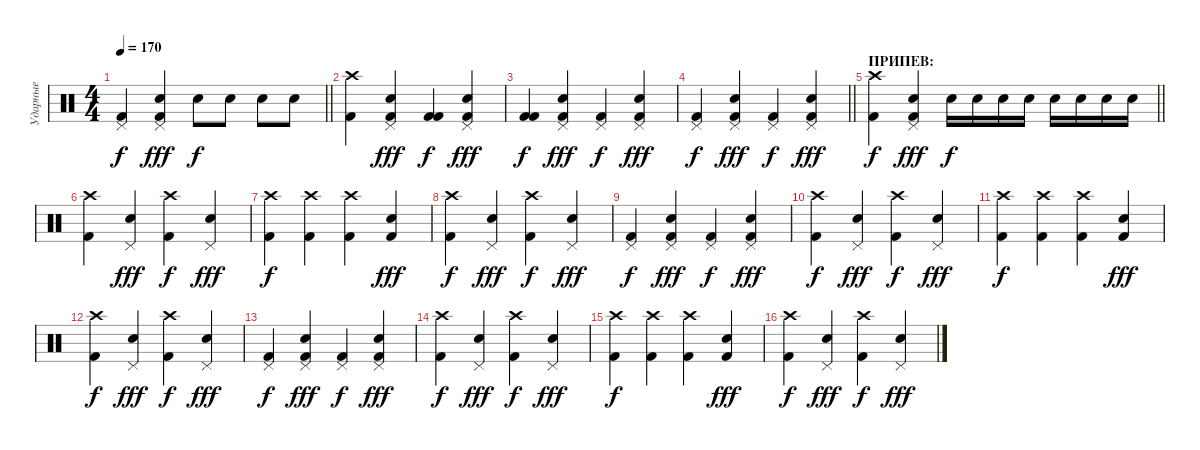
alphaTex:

\track ("Ударные" "Ударные") {instrument percussion}
\staff {score}
\articulation defaults
\ts (4 4)
\tempo 170
\clef neutral
\barLineRight lightlight
\ks c
("Pedal Hi-Hat (hit)" "Kick (hit) 2").4{dy f} ("Pedal Hi-Hat (hit)" "Snare (hit) 2" "Kick (hit) 2").4{dy fff} "Snare (hit) 2".8{dy f} "Snare (hit) 2".8 "Electric Snare (hit)".8 "Electric Snare (hit)".8 |
("Crash high (hit)" "Kick (hit) 2").4 ("Pedal Hi-Hat (hit)" "Snare (hit) 2" "Kick (hit) 2").4{dy fff} ("Kick (hit) 2" "Kick (hit) 2").4{dy f} ("Pedal Hi-Hat (hit)" "Snare (hit) 2" "Kick (hit) 2").4{dy fff} |
("Kick (hit) 2" "Kick (hit) 2").4{dy f} ("Pedal Hi-Hat (hit)" "Snare (hit) 2" "Kick (hit) 2").4{dy fff} ("Pedal Hi-Hat (hit)" "Kick (hit) 2").4{dy f} ("Pedal Hi-Hat (hit)" "Snare (hit) 2" "Kick (hit) 2").4{dy fff} |
\barLineRight lightlight
("Pedal Hi-Hat (hit)" "Kick (hit) 2").4{dy f} ("Pedal Hi-Hat (hit)" "Snare (hit) 2" "Kick (hit) 2").4{dy fff} ("Pedal Hi-Hat (hit)" "Kick (hit) 2").4{dy f} ("Pedal Hi-Hat (hit)" "Snare (hit) 2" "Kick (hit) 2").4{dy fff} |
\section ("" "ПРИПЕВ:")
\barLineRight lightlight
("Crash high (hit)" "Kick (hit) 2").4{dy f} ("Pedal Hi-Hat (hit)" "Snare (hit) 2" "Kick (hit) 2").4{dy fff} "Snare (hit) 2".16{dy f} "Snare (hit) 2".16 "Snare (hit) 2".16 "Snare (hit) 2".16 "Electric Snare (hit)".16 "Electric Snare (hit)".16 "Electric Snare (hit)".16 "Electric Snare (hit)".16 |
("Crash high (hit)" "Kick (hit) 2").4 ("Pedal Hi-Hat (hit)" "Snare (hit) 2").4{dy fff} ("Crash high (hit)" "Kick (hit) 2").4{dy f} ("Pedal Hi-Hat (hit)" "Snare (hit) 2").4{dy fff} |
("Crash high (hit)" "Kick (hit) 2").4{dy f} ("Crash high (hit)" "Kick (hit) 2").4 ("Crash high (hit)" "Kick (hit) 2").4 ("Snare (hit) 2" "Kick (hit) 2").4{dy fff} |
("Crash high (hit)" "Kick (hit) 2").4{dy f} ("Pedal Hi-Hat (hit)" "Snare (hit) 2").4{dy fff} ("Crash high (hit)" "Kick (hit) 2").4{dy f} ("Pedal Hi-Hat (hit)" "Snare (hit) 2").4{dy fff} |
("Pedal Hi-Hat (hit)" "Kick (hit) 2").4{dy f} ("Pedal Hi-Hat (hit)" "Snare (hit) 2" "Kick (hit) 2").4{dy fff} ("Pedal Hi-Hat (hit)" "Kick (hit) 2").4{dy f} ("Pedal Hi-Hat (hit)" "Snare (hit) 2" "Kick (hit) 2").4{dy fff} |
("Crash high (hit)" "Kick (hit) 2").4{dy f} ("Pedal Hi-Hat (hit)" "Snare (hit) 2").4{dy fff} ("Crash high (hit)" "Kick (hit) 2").4{dy f} ("Pedal Hi-Hat (hit)" "Snare (hit) 2").4{dy fff} |
("Crash high (hit)" "Kick (hit) 2").4{dy f} ("Crash high (hit)" "Kick (hit) 2").4 ("Crash high (hit)" "Kick (hit) 2").4 ("Snare (hit) 2" "Kick (hit) 2").4{dy fff} |
("Crash high (hit)" "Kick (hit) 2").4{dy f} ("Pedal Hi-Hat (hit)" "Snare (hit) 2").4{dy fff} ("Crash high (hit)" "Kick (hit) 2").4{dy f} ("Pedal Hi-Hat (hit)" "Snare (hit) 2").4{dy fff} |
("Pedal Hi-Hat (hit)" "Kick (hit) 2").4{dy f} ("Pedal Hi-Hat (hit)" "Snare (hit) 2" "Kick (hit) 2").4{dy fff} ("Pedal Hi-Hat (hit)" "Kick (hit) 2").4{dy f} ("Pedal Hi-Hat (hit)" "Snare (hit) 2" "Kick (hit) 2").4{dy fff} |
("Crash high (hit)" "Kick (hit) 2").4{dy f} ("Pedal Hi-Hat (hit)" "Snare (hit) 2").4{dy fff} ("Crash high (hit)" "Kick (hit) 2").4{dy f} ("Pedal Hi-Hat (hit)" "Snare (hit) 2").4{dy fff} |
("Crash high (hit)" "Kick (hit) 2").4{dy f} ("Crash high (hit)" "Kick (hit) 2").4 ("Crash high (hit)" "Kick (hit) 2").4 ("Snare (hit) 2" "Kick (hit) 2").4{dy fff} |
("Crash high (hit)" "Kick (hit) 2").4{dy f} ("Pedal Hi-Hat (hit)" "Snare (hit) 2").4{dy fff} ("Crash high (hit)" "Kick (hit) 2").4{dy f} ("Pedal Hi-Hat (hit)" "Snare (hit) 2").4{dy fff}
